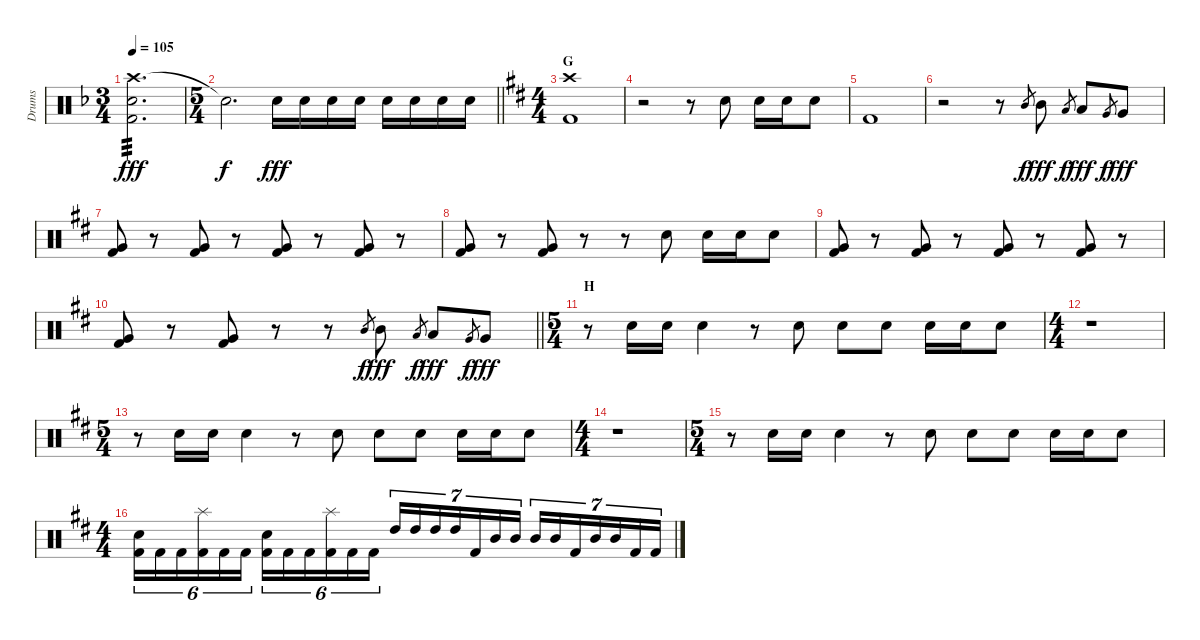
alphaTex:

\track ("Drums" "Drums") {instrument percussion}
\staff {score}
\articulation defaults
\ts (3 4)
\tempo 105
\clef neutral
\ks dminor
("Crash high (hit)" "Snare (hit) 2" "Kick (hit) 2").2{d tp 3 dy fff} |
\ts (5 4)
\barLineRight lightlight "Snare (hit)"{t}.2{d dy f} "Snare (hit) 2".16{dy fff} "Snare (hit) 2".16 "Snare (hit) 2".16 "Snare (hit) 2".16 "Snare (hit) 2".16 "Snare (hit) 2".16 "Snare (hit) 2".16 "Snare (hit) 2".16
|
\ts (4 4)
\section ("" "G")
\ks bminor
("Crash high (hit)" "Kick (hit) 2").1 |
r.2 r.8 "Snare (hit) 2".8 "Snare (hit) 2".16 "Snare (hit) 2".16 "Snare (hit) 2".8 |
"Kick (hit) 2".1 |
r.2 r.8 "Mid Tom (hit)".8{gr dy f} "Mid Tom (hit)".8{dy fff} "Low Tom (hit)".8{gr dy f} "Low Tom (hit)".8{dy fff} "Very Low Tom (hit)".8{gr dy f} "Very Low Tom (hit)".8{dy fff} |
("Very Low Tom (hit)" "Kick (hit) 2").8 r.8 ("Very Low Tom (hit)" "Kick (hit) 2").8 r.8 ("Very Low Tom (hit)" "Kick (hit) 2").8 r.8 ("Very Low Tom (hit)" "Kick (hit) 2").8 r.8 |
("Very Low Tom (hit)" "Kick (hit) 2").8 r.8 ("Very Low Tom (hit)" "Kick (hit) 2").8 r.8 r.8 "Snare (hit) 2".8 "Snare (hit) 2".16 "Snare (hit) 2".16 "Snare (hit) 2".8 |
("Very Low Tom (hit)" "Kick (hit) 2").8 r.8 ("Very Low Tom (hit)" "Kick (hit) 2").8 r.8 ("Very Low Tom (hit)" "Kick (hit) 2").8 r.8 ("Very Low Tom (hit)" "Kick (hit) 2").8 r.8 |
\barLineRight lightlight
("Very Low Tom (hit)" "Kick (hit) 2").8 r.8 ("Very Low Tom (hit)" "Kick (hit) 2").8 r.8 r.8 "Mid Tom (hit)".8{gr dy f} "Mid Tom (hit)".8{dy fff} "Low Tom (hit)".8{gr dy f} "Low Tom (hit)".8{dy fff} "Very Low Tom (hit)".8{gr dy f} "Very Low Tom (hit)".8{dy fff} |
\ts (5 4)
\section ("" "H")
r.8 "Snare (hit) 2".16 "Snare (hit) 2".16 "Snare (hit) 2".4 r.8 "Snare (hit) 2".8 "Snare (hit) 2".8 "Snare (hit) 2".8 "Snare (hit) 2".16 "Snare (hit) 2".16 "Snare (hit) 2".8 |
\ts (4 4)
\ks d
r.1 |
\ts (5 4)
\ks bminor
r.8 "Snare (hit) 2".16 "Snare (hit) 2".16 "Snare (hit) 2".4 r.8 "Snare (hit) 2".8 "Snare (hit) 2".8 "Snare (hit) 2".8 "Snare (hit) 2".16 "Snare (hit) 2".16 "Snare (hit) 2".8 |
\ts (4 4)
r.1 |
\ts (5 4)
r.8 "Snare (hit) 2".16 "Snare (hit) 2".16 "Snare (hit) 2".4 r.8 "Snare (hit) 2".8 "Snare (hit) 2".8 "Snare (hit) 2".8 "Snare (hit) 2".16 "Snare (hit) 2".16 "Snare (hit) 2".8 |
\ts (4 4)
("Snare (hit) 2" "Kick (hit) 2").16{tu (6 4)} "Kick (hit) 2".16{tu (6 4)} "Kick (hit) 2".16{tu (6 4)} ("Splash (hit)" "Kick (hit) 2").16{tu (6 4)} "Kick (hit) 2".16{tu (6 4)} "Kick (hit) 2".16{tu (6 4)} ("Snare (hit) 2" "Kick (hit) 2").16{tu (6 4)} "Kick (hit) 2".16{tu (6 4)} "Kick (hit) 2".16{tu (6 4)} ("Splash (hit)" "Kick (hit) 2").16{tu (6 4)} "Kick (hit) 2".16{tu (6 4)} "Kick (hit) 2".16{tu (6 4)} "High Tom (hit)".16{tu (7 4)} "High Tom (hit)".16{tu (7 4)} "High Tom (hit)".16{tu (7 4)} "High Tom (hit)".16{tu (7 4)} "Kick (hit) 2".16{tu (7 4)} "Mid Tom (hit)".16{tu (7 4)} "Mid Tom (hit)".16{tu (7 4)} "Mid Tom (hit)".16{tu (7 4)} "Mid Tom (hit)".16{tu (7 4)} "Kick (hit) 2".16{tu (7 4)} "Mid Tom (hit)".16{tu (7 4)} "Mid Tom (hit)".16{tu (7 4)} "Kick (hit) 2".16{tu (7 4)} "Kick (hit) 2".16{tu (7 4)}
